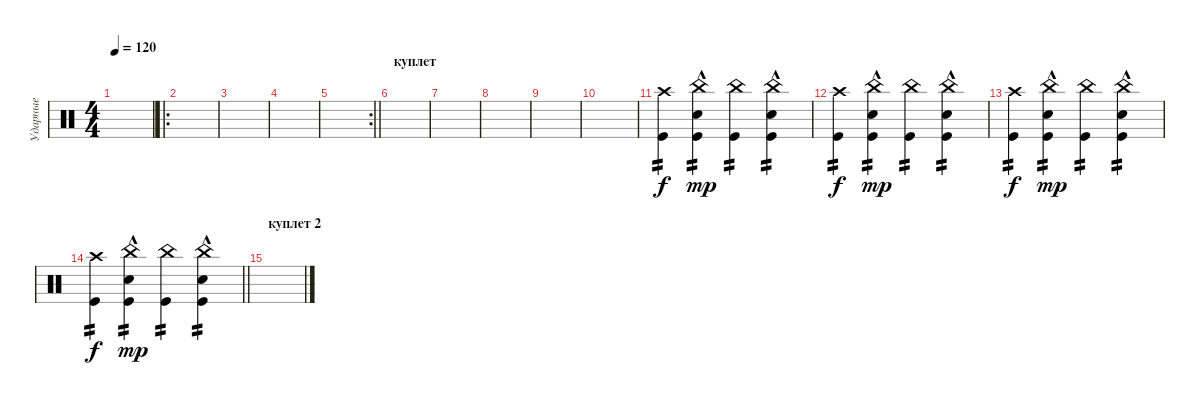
\track ("Ударные" "Ударные") {instrument percussion}
\staff {score}
\articulation defaults
\ts (4 4)
\tempo 120
\clef neutral
\ks c
|
\ro
|
|
|
\rc 2
\barLineRight lightlight
|
\section ("" "куплет")
|
|
|
|
|
("Kick (hit)" "Crash high (hit)").4{tp 2} ("Snare (hit) 2"{hac} "China (hit)" "Kick (hit)").4{tp 2 dy mp} ("China (hit)" "Kick (hit)").4{tp 2} ("Snare (hit) 2"{hac} "China (hit)" "Kick (hit)").4{tp 2} |
("Kick (hit)" "Crash high (hit)").4{tp 2 dy f} ("Snare (hit) 2"{hac} "China (hit)" "Kick (hit)").4{tp 2 dy mp} ("China (hit)" "Kick (hit)").4{tp 2} ("Snare (hit) 2"{hac} "China (hit)" "Kick (hit)").4{tp 2} |
("Kick (hit)" "Crash high (hit)").4{tp 2 dy f} ("Snare (hit) 2"{hac} "China (hit)" "Kick (hit)").4{tp 2 dy mp} ("China (hit)" "Kick (hit)").4{tp 2} ("Snare (hit) 2"{hac} "China (hit)" "Kick (hit)").4{tp 2} |
\barLineRight lightlight
("Kick (hit)" "Crash high (hit)").4{tp 2 dy f} ("Snare (hit) 2"{hac} "China (hit)" "Kick (hit)").4{tp 2 dy mp} ("China (hit)" "Kick (hit)").4{tp 2} ("Snare (hit) 2"{hac} "China (hit)" "Kick (hit)").4{tp 2} |
\section ("" "куплет 2")
